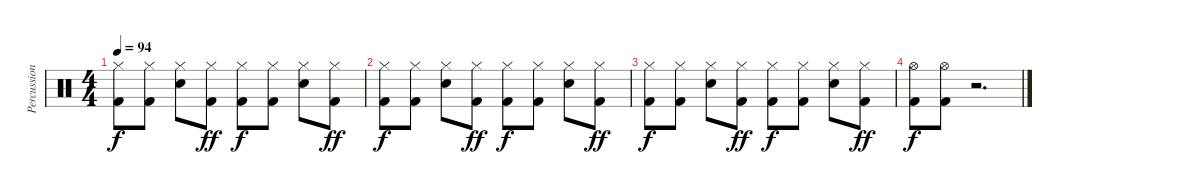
\track ("Percussion" "Percussion") {instrument percussion}
\staff {score}
\articulation defaults
\ts (4 4)
\tempo 94
\clef neutral
\ks c
("Kick (hit) 2" "Hi-Hat (closed)").8{dy f} ("Kick (hit) 2" "Hi-Hat (closed)").8 ("Electric Snare (hit)" "Hi-Hat (closed)").8 ("Kick (hit) 2" "Hi-Hat (closed)").8{dy ff} ("Kick (hit) 2" "Hi-Hat (closed)").8{dy f} ("Kick (hit) 2" "Hi-Hat (closed)").8 ("Electric Snare (hit)" "Hi-Hat (closed)").8 ("Kick (hit) 2" "Hi-Hat (closed)").8{dy ff} |
("Kick (hit) 2" "Hi-Hat (closed)").8{dy f} ("Kick (hit) 2" "Hi-Hat (closed)").8 ("Electric Snare (hit)" "Hi-Hat (closed)").8 ("Kick (hit) 2" "Hi-Hat (closed)").8{dy ff} ("Kick (hit) 2" "Hi-Hat (closed)").8{dy f} ("Kick (hit) 2" "Hi-Hat (closed)").8 ("Electric Snare (hit)" "Hi-Hat (closed)").8 ("Kick (hit) 2" "Hi-Hat (closed)").8{dy ff} |
("Kick (hit) 2" "Hi-Hat (closed)").8{dy f} ("Kick (hit) 2" "Hi-Hat (closed)").8 ("Electric Snare (hit)" "Hi-Hat (closed)").8 ("Kick (hit) 2" "Hi-Hat (closed)").8{dy ff} ("Kick (hit) 2" "Hi-Hat (closed)").8{dy f} ("Kick (hit) 2" "Hi-Hat (closed)").8 ("Electric Snare (hit)" "Hi-Hat (closed)").8 ("Kick (hit) 2" "Hi-Hat (closed)").8{dy ff} |
("Kick (hit) 2" "Hi-Hat (open)").8{dy f} ("Kick (hit) 2" "Hi-Hat (open)").8 r.2{d}
